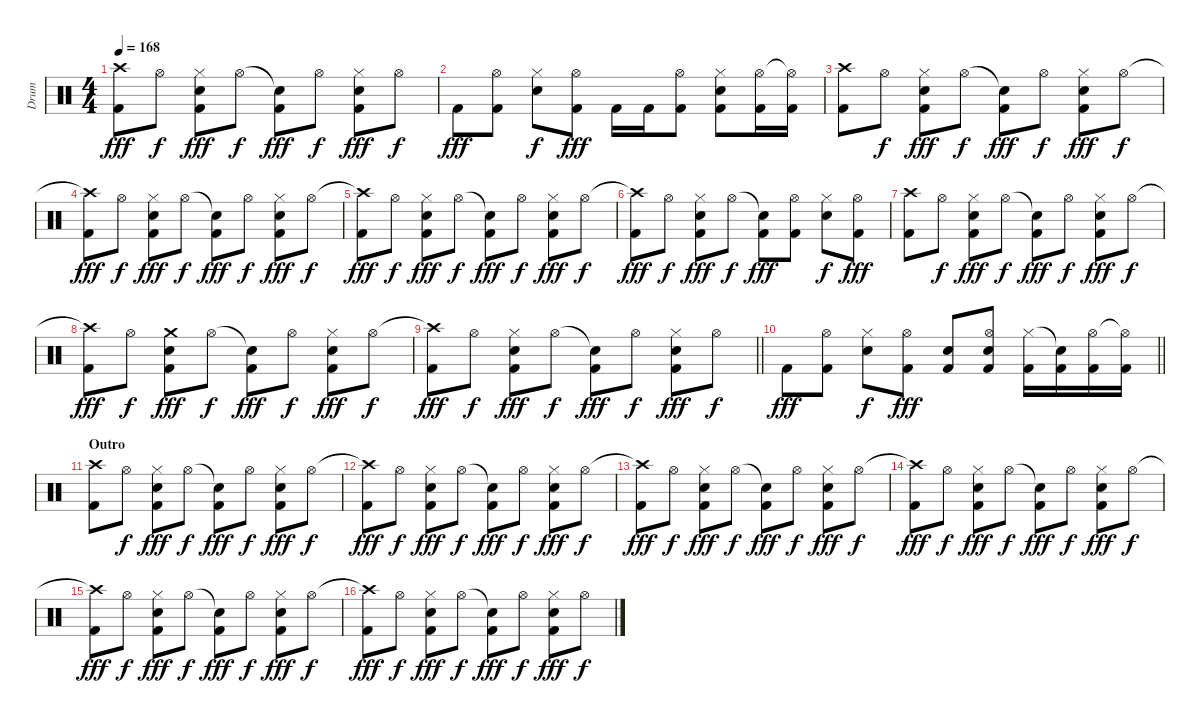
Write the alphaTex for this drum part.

\track ("Drum" "Drum") {instrument percussion}
\staff {score}
\articulation defaults
\ts (4 4)
\tempo 168
\clef neutral
\ks c
("Crash high (hit)"{t} "Kick (hit) 2").8{dy fff} "Hi-Hat (open)".8{dy f} ("Hi-Hat (closed)" "Snare (hit) 2" "Kick (hit) 2").8{dy fff} "Hi-Hat (open)".8{dy f} ("Snare (hit)"{t} "Kick (hit) 2").8{dy fff} "Hi-Hat (open)".8{dy f} ("Hi-Hat (closed)" "Snare (hit) 2" "Kick (hit) 2").8{dy fff} "Hi-Hat (open)".8{dy f} |
"Kick (hit) 2".8{dy fff} ("Hi-Hat (open)" "Kick (hit) 2").8 ("Hi-Hat (closed)" "Snare (hit) 2").8{dy f} ("Hi-Hat (open)" "Kick (hit) 2").8{dy fff} "Kick (hit) 2".16 "Kick (hit) 2".16 ("Hi-Hat (open)" "Kick (hit) 2").8 ("Hi-Hat (closed)" "Snare (hit) 2" "Kick (hit) 2").8 ("Hi-Hat (open)" "Kick (hit) 2").16 ("Hi-Hat (open)"{t} "Kick (hit) 2").16 |
("Crash high (hit)" "Kick (hit) 2").8 "Hi-Hat (open)".8{dy f} ("Hi-Hat (closed)" "Snare (hit) 2" "Kick (hit) 2").8{dy fff} "Hi-Hat (open)".8{dy f} ("Snare (hit)"{t} "Kick (hit) 2").8{dy fff} "Hi-Hat (open)".8{dy f} ("Hi-Hat (closed)" "Snare (hit) 2" "Kick (hit) 2").8{dy fff} "Hi-Hat (open)".8{dy f} |
("Crash high (hit)"{t} "Kick (hit) 2").8{dy fff} "Hi-Hat (open)".8{dy f} ("Hi-Hat (closed)" "Snare (hit) 2" "Kick (hit) 2").8{dy fff} "Hi-Hat (open)".8{dy f} ("Snare (hit)"{t} "Kick (hit) 2").8{dy fff} "Hi-Hat (open)".8{dy f} ("Hi-Hat (closed)" "Snare (hit) 2" "Kick (hit) 2").8{dy fff} "Hi-Hat (open)".8{dy f} |
("Crash high (hit)"{t} "Kick (hit) 2").8{dy fff} "Hi-Hat (open)".8{dy f} ("Hi-Hat (closed)" "Snare (hit) 2" "Kick (hit) 2").8{dy fff} "Hi-Hat (open)".8{dy f} ("Snare (hit)"{t} "Kick (hit) 2").8{dy fff} "Hi-Hat (open)".8{dy f} ("Hi-Hat (closed)" "Snare (hit) 2" "Kick (hit) 2").8{dy fff} "Hi-Hat (open)".8{dy f} |
("Crash high (hit)"{t} "Kick (hit) 2").8{dy fff} "Hi-Hat (open)".8{dy f} ("Hi-Hat (closed)" "Snare (hit) 2" "Kick (hit) 2").8{dy fff} "Hi-Hat (open)".8{dy f} ("Snare (hit)"{t} "Kick (hit) 2").8{dy fff} ("Hi-Hat (open)" "Kick (hit) 2").8 ("Hi-Hat (closed)" "Snare (hit) 2").8{dy f} ("Hi-Hat (open)" "Kick (hit) 2").8{dy fff} |
("Crash high (hit)" "Kick (hit) 2").8 "Hi-Hat (open)".8{dy f} ("Hi-Hat (closed)" "Snare (hit) 2" "Kick (hit) 2").8{dy fff} "Hi-Hat (open)".8{dy f} ("Snare (hit)"{t} "Kick (hit) 2").8{dy fff} "Hi-Hat (open)".8{dy f} ("Hi-Hat (closed)" "Snare (hit) 2" "Kick (hit) 2").8{dy fff} "Hi-Hat (open)".8{dy f} |
("Crash high (hit)"{t} "Kick (hit) 2").8{dy fff} "Hi-Hat (open)".8{dy f} ("Crash medium (hit)" "Snare (hit) 2" "Kick (hit) 2").8{dy fff} "Hi-Hat (open)".8{dy f} ("Snare (hit)"{t} "Kick (hit) 2").8{dy fff} "Hi-Hat (open)".8{dy f} ("Hi-Hat (closed)" "Snare (hit) 2" "Kick (hit) 2").8{dy fff} "Hi-Hat (open)".8{dy f} |
\barLineRight lightlight
("Crash high (hit)"{t} "Kick (hit) 2").8{dy fff} "Hi-Hat (open)".8{dy f} ("Hi-Hat (closed)" "Snare (hit) 2" "Kick (hit) 2").8{dy fff} "Hi-Hat (open)".8{dy f} ("Snare (hit)"{t} "Kick (hit) 2").8{dy fff} "Hi-Hat (open)".8{dy f} ("Hi-Hat (closed)" "Snare (hit) 2" "Kick (hit) 2").8{dy fff} "Hi-Hat (open)".8{dy f} |
\barLineRight lightlight "Kick (hit) 2".8{dy fff}
("Hi-Hat (open)" "Kick (hit) 2").8 ("Hi-Hat (closed)" "Snare (hit) 2").8{dy f} ("Hi-Hat (open)" "Kick (hit) 2").8{dy fff} ("Snare (hit) 2" "Kick (hit) 2").8 ("Hi-Hat (open)" "Snare (hit) 2" "Kick (hit) 2").8 ("Hi-Hat (closed)" "Kick (hit) 2").16 ("Snare (hit)"{t} "Kick (hit) 2").16 ("Hi-Hat (open)" "Kick (hit) 2").16 ("Hi-Hat (open)"{t} "Kick (hit) 2").16 |
\section ("" "Outro")
("Crash high (hit)" "Kick (hit) 2").8 "Hi-Hat (open)".8{dy f} ("Hi-Hat (closed)" "Snare (hit) 2" "Kick (hit) 2").8{dy fff} "Hi-Hat (open)".8{dy f} ("Snare (hit)"{t} "Kick (hit) 2").8{dy fff} "Hi-Hat (open)".8{dy f} ("Hi-Hat (closed)" "Snare (hit) 2" "Kick (hit) 2").8{dy fff} "Hi-Hat (open)".8{dy f} |
("Crash high (hit)"{t} "Kick (hit) 2").8{dy fff} "Hi-Hat (open)".8{dy f} ("Hi-Hat (closed)" "Snare (hit) 2" "Kick (hit) 2").8{dy fff} "Hi-Hat (open)".8{dy f} ("Snare (hit)"{t} "Kick (hit) 2").8{dy fff} "Hi-Hat (open)".8{dy f} ("Hi-Hat (closed)" "Snare (hit) 2" "Kick (hit) 2").8{dy fff} "Hi-Hat (open)".8{dy f} |
("Crash high (hit)"{t} "Kick (hit) 2").8{dy fff} "Hi-Hat (open)".8{dy f} ("Hi-Hat (closed)" "Snare (hit) 2" "Kick (hit) 2").8{dy fff} "Hi-Hat (open)".8{dy f} ("Snare (hit)"{t} "Kick (hit) 2").8{dy fff} "Hi-Hat (open)".8{dy f} ("Hi-Hat (closed)" "Snare (hit) 2" "Kick (hit) 2").8{dy fff} "Hi-Hat (open)".8{dy f} |
("Crash high (hit)"{t} "Kick (hit) 2").8{dy fff} "Hi-Hat (open)".8{dy f} ("Hi-Hat (closed)" "Snare (hit) 2" "Kick (hit) 2").8{dy fff} "Hi-Hat (open)".8{dy f} ("Snare (hit)"{t} "Kick (hit) 2").8{dy fff} "Hi-Hat (open)".8{dy f} ("Hi-Hat (closed)" "Snare (hit) 2" "Kick (hit) 2").8{dy fff} "Hi-Hat (open)".8{dy f} |
("Crash high (hit)"{t} "Kick (hit) 2").8{dy fff} "Hi-Hat (open)".8{dy f} ("Hi-Hat (closed)" "Snare (hit) 2" "Kick (hit) 2").8{dy fff} "Hi-Hat (open)".8{dy f} ("Snare (hit)"{t} "Kick (hit) 2").8{dy fff} "Hi-Hat (open)".8{dy f} ("Hi-Hat (closed)" "Snare (hit) 2" "Kick (hit) 2").8{dy fff} "Hi-Hat (open)".8{dy f} |
("Crash high (hit)"{t} "Kick (hit) 2").8{dy fff} "Hi-Hat (open)".8{dy f} ("Hi-Hat (closed)" "Snare (hit) 2" "Kick (hit) 2").8{dy fff} "Hi-Hat (open)".8{dy f} ("Snare (hit)"{t} "Kick (hit) 2").8{dy fff} "Hi-Hat (open)".8{dy f} ("Hi-Hat (closed)" "Snare (hit) 2" "Kick (hit) 2").8{dy fff} "Hi-Hat (open)".8{dy f}
